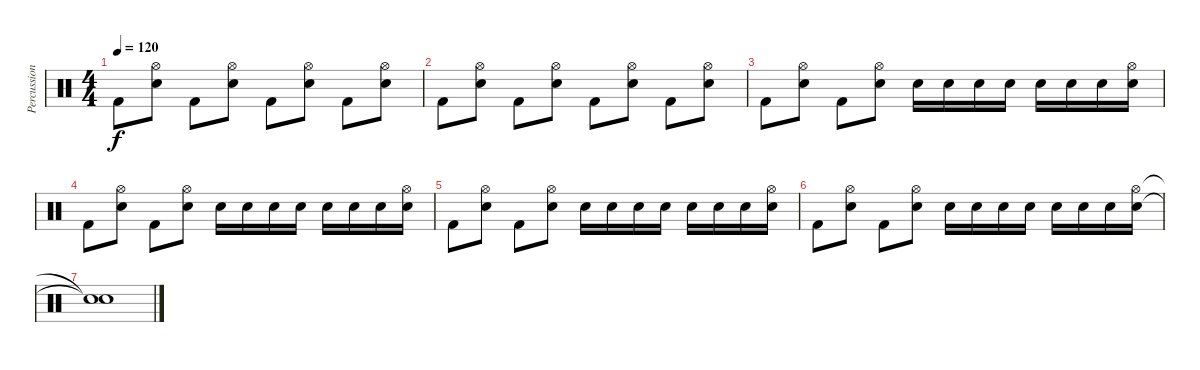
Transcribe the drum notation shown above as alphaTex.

\track ("Percussion" "Percussion") {instrument percussion}
\staff {score}
\articulation defaults
\ts (4 4)
\tempo 120
\clef neutral
\ks c "Kick (hit) 2".8{dy f}
("Electric Snare (hit)" "Hi-Hat (open)").8 "Kick (hit) 2".8 ("Electric Snare (hit)" "Hi-Hat (open)").8 "Kick (hit) 2".8 ("Electric Snare (hit)" "Hi-Hat (open)").8 "Kick (hit) 2".8 ("Electric Snare (hit)" "Hi-Hat (open)").8 |
"Kick (hit) 2".8 ("Electric Snare (hit)" "Hi-Hat (open)").8 "Kick (hit) 2".8 ("Electric Snare (hit)" "Hi-Hat (open)").8 "Kick (hit) 2".8 ("Electric Snare (hit)" "Hi-Hat (open)").8 "Kick (hit) 2".8 ("Electric Snare (hit)" "Hi-Hat (open)").8 |
"Kick (hit) 2".8 ("Electric Snare (hit)" "Hi-Hat (open)").8 "Kick (hit) 2".8 ("Electric Snare (hit)" "Hi-Hat (open)").8 "Electric Snare (hit)".16 "Electric Snare (hit)".16 "Electric Snare (hit)".16 "Electric Snare (hit)".16 "Electric Snare (hit)".16 "Electric Snare (hit)".16 "Electric Snare (hit)".16 ("Electric Snare (hit)" "Hi-Hat (open)").16 |
"Kick (hit) 2".8 ("Electric Snare (hit)" "Hi-Hat (open)").8 "Kick (hit) 2".8 ("Electric Snare (hit)" "Hi-Hat (open)").8 "Electric Snare (hit)".16 "Electric Snare (hit)".16 "Electric Snare (hit)".16 "Electric Snare (hit)".16 "Electric Snare (hit)".16 "Electric Snare (hit)".16 "Electric Snare (hit)".16 ("Electric Snare (hit)" "Hi-Hat (open)").16 |
"Kick (hit) 2".8 ("Electric Snare (hit)" "Hi-Hat (open)").8 "Kick (hit) 2".8 ("Electric Snare (hit)" "Hi-Hat (open)").8 "Electric Snare (hit)".16 "Electric Snare (hit)".16 "Electric Snare (hit)".16 "Electric Snare (hit)".16 "Electric Snare (hit)".16 "Electric Snare (hit)".16 "Electric Snare (hit)".16 ("Electric Snare (hit)" "Hi-Hat (open)").16 |
"Kick (hit) 2".8 ("Electric Snare (hit)" "Hi-Hat (open)").8 "Kick (hit) 2".8 ("Electric Snare (hit)" "Hi-Hat (open)").8 "Electric Snare (hit)".16 "Electric Snare (hit)".16 "Electric Snare (hit)".16 "Electric Snare (hit)".16 "Electric Snare (hit)".16 "Electric Snare (hit)".16 "Electric Snare (hit)".16 ("Electric Snare (hit)" "Hi-Hat (open)").16 |
("Snare (hit)"{t} "Snare (hit)"{t}).1
